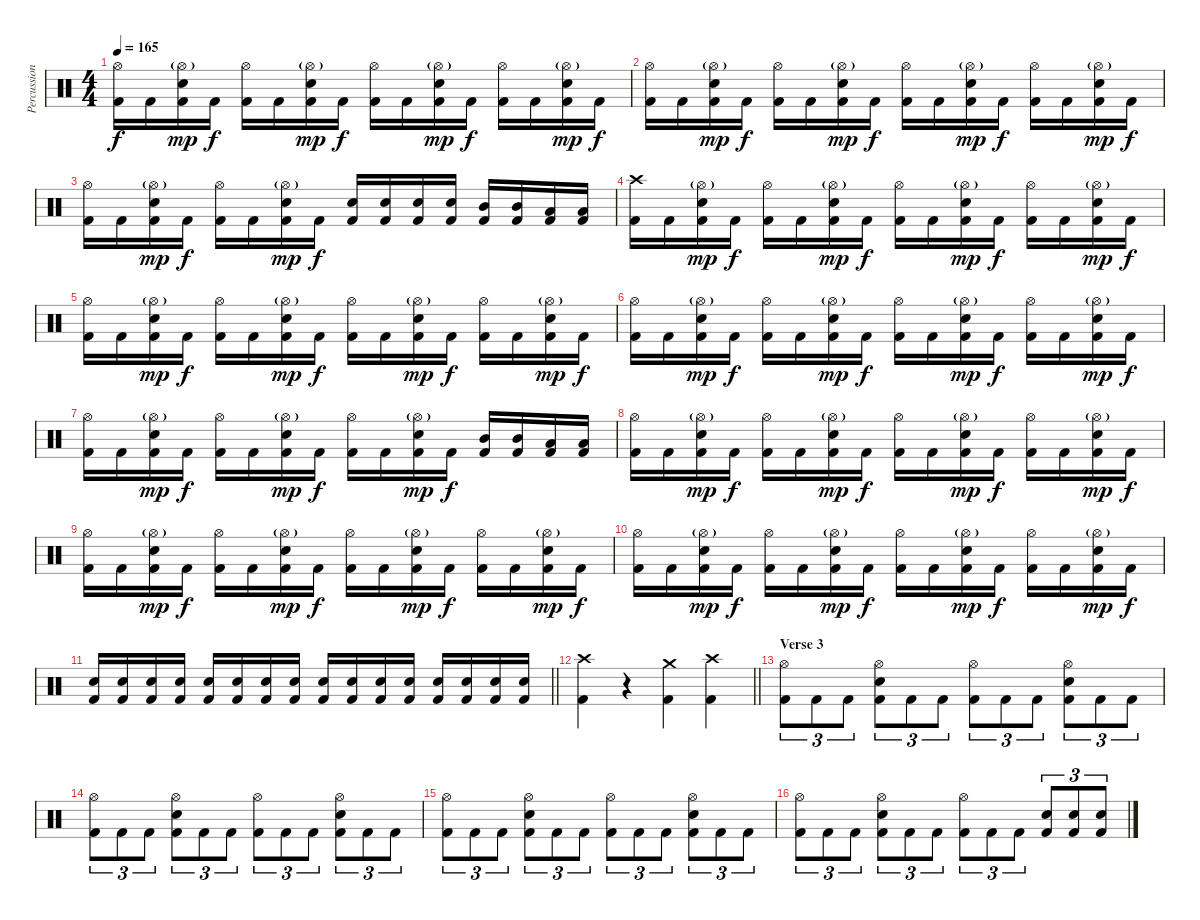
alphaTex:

\track ("Percussion" "Percussion") {instrument percussion}
\staff {score}
\articulation defaults
\ts (4 4)
\tempo 165
\clef neutral
\ks c
("Hi-Hat (open)" "Kick (hit) 2").16{dy f} "Kick (hit) 2".16 ("Hi-Hat (open)"{g} "Snare (hit) 2" "Kick (hit) 2").16{dy mp} "Kick (hit) 2".16{dy f} ("Hi-Hat (open)" "Kick (hit) 2").16 "Kick (hit) 2".16 ("Hi-Hat (open)"{g} "Snare (hit) 2" "Kick (hit) 2").16{dy mp} "Kick (hit) 2".16{dy f} ("Hi-Hat (open)" "Kick (hit) 2").16 "Kick (hit) 2".16 ("Hi-Hat (open)"{g} "Snare (hit) 2" "Kick (hit) 2").16{dy mp} "Kick (hit) 2".16{dy f} ("Hi-Hat (open)" "Kick (hit) 2").16 "Kick (hit) 2".16 ("Hi-Hat (open)"{g} "Snare (hit) 2" "Kick (hit) 2").16{dy mp} "Kick (hit) 2".16{dy f} |
("Hi-Hat (open)" "Kick (hit) 2").16 "Kick (hit) 2".16 ("Hi-Hat (open)"{g} "Snare (hit) 2" "Kick (hit) 2").16{dy mp} "Kick (hit) 2".16{dy f} ("Hi-Hat (open)" "Kick (hit) 2").16 "Kick (hit) 2".16 ("Hi-Hat (open)"{g} "Snare (hit) 2" "Kick (hit) 2").16{dy mp} "Kick (hit) 2".16{dy f} ("Hi-Hat (open)" "Kick (hit) 2").16 "Kick (hit) 2".16 ("Hi-Hat (open)"{g} "Snare (hit) 2" "Kick (hit) 2").16{dy mp} "Kick (hit) 2".16{dy f} ("Hi-Hat (open)" "Kick (hit) 2").16 "Kick (hit) 2".16 ("Hi-Hat (open)"{g} "Snare (hit) 2" "Kick (hit) 2").16{dy mp} "Kick (hit) 2".16{dy f} |
("Hi-Hat (open)" "Kick (hit) 2").16 "Kick (hit) 2".16 ("Hi-Hat (open)"{g} "Snare (hit) 2" "Kick (hit) 2").16{dy mp} "Kick (hit) 2".16{dy f} ("Hi-Hat (open)" "Kick (hit) 2").16 "Kick (hit) 2".16 ("Hi-Hat (open)"{g} "Snare (hit) 2" "Kick (hit) 2").16{dy mp} "Kick (hit) 2".16{dy f} ("Snare (hit) 2" "Kick (hit) 2").16 ("Snare (hit) 2" "Kick (hit) 2").16 ("Snare (hit) 2" "Kick (hit) 2").16 ("Snare (hit) 2" "Kick (hit) 2").16 ("Mid Tom (hit)" "Kick (hit) 2").16 ("Mid Tom (hit)" "Kick (hit) 2").16 ("Low Tom (hit)" "Kick (hit) 2").16 ("Low Tom (hit)" "Kick (hit) 2").16 |
("Crash high (hit)" "Kick (hit) 2").16 "Kick (hit) 2".16 ("Hi-Hat (open)"{g} "Snare (hit) 2" "Kick (hit) 2").16{dy mp} "Kick (hit) 2".16{dy f} ("Hi-Hat (open)" "Kick (hit) 2").16 "Kick (hit) 2".16 ("Hi-Hat (open)"{g} "Snare (hit) 2" "Kick (hit) 2").16{dy mp} "Kick (hit) 2".16{dy f} ("Hi-Hat (open)" "Kick (hit) 2").16 "Kick (hit) 2".16 ("Hi-Hat (open)"{g} "Snare (hit) 2" "Kick (hit) 2").16{dy mp} "Kick (hit) 2".16{dy f} ("Hi-Hat (open)" "Kick (hit) 2").16 "Kick (hit) 2".16 ("Hi-Hat (open)"{g} "Snare (hit) 2" "Kick (hit) 2").16{dy mp} "Kick (hit) 2".16{dy f} |
("Hi-Hat (open)" "Kick (hit) 2").16 "Kick (hit) 2".16 ("Hi-Hat (open)"{g} "Snare (hit) 2" "Kick (hit) 2").16{dy mp} "Kick (hit) 2".16{dy f} ("Hi-Hat (open)" "Kick (hit) 2").16 "Kick (hit) 2".16 ("Hi-Hat (open)"{g} "Snare (hit) 2" "Kick (hit) 2").16{dy mp} "Kick (hit) 2".16{dy f} ("Hi-Hat (open)" "Kick (hit) 2").16 "Kick (hit) 2".16 ("Hi-Hat (open)"{g} "Snare (hit) 2" "Kick (hit) 2").16{dy mp} "Kick (hit) 2".16{dy f} ("Hi-Hat (open)" "Kick (hit) 2").16 "Kick (hit) 2".16 ("Hi-Hat (open)"{g} "Snare (hit) 2" "Kick (hit) 2").16{dy mp} "Kick (hit) 2".16{dy f} |
("Hi-Hat (open)" "Kick (hit) 2").16 "Kick (hit) 2".16 ("Hi-Hat (open)"{g} "Snare (hit) 2" "Kick (hit) 2").16{dy mp} "Kick (hit) 2".16{dy f} ("Hi-Hat (open)" "Kick (hit) 2").16 "Kick (hit) 2".16 ("Hi-Hat (open)"{g} "Snare (hit) 2" "Kick (hit) 2").16{dy mp} "Kick (hit) 2".16{dy f} ("Hi-Hat (open)" "Kick (hit) 2").16 "Kick (hit) 2".16 ("Hi-Hat (open)"{g} "Snare (hit) 2" "Kick (hit) 2").16{dy mp} "Kick (hit) 2".16{dy f} ("Hi-Hat (open)" "Kick (hit) 2").16 "Kick (hit) 2".16 ("Hi-Hat (open)"{g} "Snare (hit) 2" "Kick (hit) 2").16{dy mp} "Kick (hit) 2".16{dy f} |
("Hi-Hat (open)" "Kick (hit) 2").16 "Kick (hit) 2".16 ("Hi-Hat (open)"{g} "Snare (hit) 2" "Kick (hit) 2").16{dy mp} "Kick (hit) 2".16{dy f} ("Hi-Hat (open)" "Kick (hit) 2").16 "Kick (hit) 2".16 ("Hi-Hat (open)"{g} "Snare (hit) 2" "Kick (hit) 2").16{dy mp} "Kick (hit) 2".16{dy f} ("Hi-Hat (open)" "Kick (hit) 2").16 "Kick (hit) 2".16 ("Hi-Hat (open)"{g} "Snare (hit) 2" "Kick (hit) 2").16{dy mp} "Kick (hit) 2".16{dy f} ("Mid Tom (hit)" "Kick (hit) 2").16 ("Mid Tom (hit)" "Kick (hit) 2").16 ("Low Tom (hit)" "Kick (hit) 2").16 ("Low Tom (hit)" "Kick (hit) 2").16 |
("Hi-Hat (open)" "Kick (hit) 2").16 "Kick (hit) 2".16 ("Hi-Hat (open)"{g} "Snare (hit) 2" "Kick (hit) 2").16{dy mp} "Kick (hit) 2".16{dy f} ("Hi-Hat (open)" "Kick (hit) 2").16 "Kick (hit) 2".16 ("Hi-Hat (open)"{g} "Snare (hit) 2" "Kick (hit) 2").16{dy mp} "Kick (hit) 2".16{dy f} ("Hi-Hat (open)" "Kick (hit) 2").16 "Kick (hit) 2".16 ("Hi-Hat (open)"{g} "Snare (hit) 2" "Kick (hit) 2").16{dy mp} "Kick (hit) 2".16{dy f} ("Hi-Hat (open)" "Kick (hit) 2").16 "Kick (hit) 2".16 ("Hi-Hat (open)"{g} "Snare (hit) 2" "Kick (hit) 2").16{dy mp} "Kick (hit) 2".16{dy f} |
("Hi-Hat (open)" "Kick (hit) 2").16 "Kick (hit) 2".16 ("Hi-Hat (open)"{g} "Snare (hit) 2" "Kick (hit) 2").16{dy mp} "Kick (hit) 2".16{dy f} ("Hi-Hat (open)" "Kick (hit) 2").16 "Kick (hit) 2".16 ("Hi-Hat (open)"{g} "Snare (hit) 2" "Kick (hit) 2").16{dy mp} "Kick (hit) 2".16{dy f} ("Hi-Hat (open)" "Kick (hit) 2").16 "Kick (hit) 2".16 ("Hi-Hat (open)"{g} "Snare (hit) 2" "Kick (hit) 2").16{dy mp} "Kick (hit) 2".16{dy f} ("Hi-Hat (open)" "Kick (hit) 2").16 "Kick (hit) 2".16 ("Hi-Hat (open)"{g} "Snare (hit) 2" "Kick (hit) 2").16{dy mp} "Kick (hit) 2".16{dy f} |
("Hi-Hat (open)" "Kick (hit) 2").16 "Kick (hit) 2".16 ("Hi-Hat (open)"{g} "Snare (hit) 2" "Kick (hit) 2").16{dy mp} "Kick (hit) 2".16{dy f} ("Hi-Hat (open)" "Kick (hit) 2").16 "Kick (hit) 2".16 ("Hi-Hat (open)"{g} "Snare (hit) 2" "Kick (hit) 2").16{dy mp} "Kick (hit) 2".16{dy f} ("Hi-Hat (open)" "Kick (hit) 2").16 "Kick (hit) 2".16 ("Hi-Hat (open)"{g} "Snare (hit) 2" "Kick (hit) 2").16{dy mp} "Kick (hit) 2".16{dy f} ("Hi-Hat (open)" "Kick (hit) 2").16 "Kick (hit) 2".16 ("Hi-Hat (open)"{g} "Snare (hit) 2" "Kick (hit) 2").16{dy mp} "Kick (hit) 2".16{dy f} |
\barLineRight lightlight
("Snare (hit) 2" "Kick (hit) 2").16 ("Snare (hit) 2" "Kick (hit) 2").16 ("Snare (hit) 2" "Kick (hit) 2").16 ("Snare (hit) 2" "Kick (hit) 2").16 ("Snare (hit) 2" "Kick (hit) 2").16 ("Snare (hit) 2" "Kick (hit) 2").16 ("Snare (hit) 2" "Kick (hit) 2").16 ("Snare (hit) 2" "Kick (hit) 2").16 ("Snare (hit) 2" "Kick (hit) 2").16 ("Snare (hit) 2" "Kick (hit) 2").16 ("Snare (hit) 2" "Kick (hit) 2").16 ("Snare (hit) 2" "Kick (hit) 2").16 ("Snare (hit) 2" "Kick (hit) 2").16 ("Snare (hit) 2" "Kick (hit) 2").16 ("Snare (hit) 2" "Kick (hit) 2").16 ("Snare (hit) 2" "Kick (hit) 2").16 |
\barLineRight lightlight
("Crash high (hit)" "Kick (hit) 2").4 r.4 ("Crash medium (hit)" "Kick (hit) 2").4 ("Crash high (hit)" "Kick (hit) 2").4 |
\section ("" "Verse 3")
("Hi-Hat (open)" "Kick (hit) 2").8{tu (3 2)} "Kick (hit) 2".8{tu (3 2)} "Kick (hit) 2".8{tu (3 2)} ("Hi-Hat (open)" "Snare (hit) 2" "Kick (hit) 2").8{tu (3 2)} "Kick (hit) 2".8{tu (3 2)} "Kick (hit) 2".8{tu (3 2)} ("Hi-Hat (open)" "Kick (hit) 2").8{tu (3 2)} "Kick (hit) 2".8{tu (3 2)} "Kick (hit) 2".8{tu (3 2)} ("Hi-Hat (open)" "Snare (hit) 2" "Kick (hit) 2").8{tu (3 2)} "Kick (hit) 2".8{tu (3 2)} "Kick (hit) 2".8{tu (3 2)} |
("Hi-Hat (open)" "Kick (hit) 2").8{tu (3 2)} "Kick (hit) 2".8{tu (3 2)} "Kick (hit) 2".8{tu (3 2)} ("Hi-Hat (open)" "Snare (hit) 2" "Kick (hit) 2").8{tu (3 2)} "Kick (hit) 2".8{tu (3 2)} "Kick (hit) 2".8{tu (3 2)} ("Hi-Hat (open)" "Kick (hit) 2").8{tu (3 2)} "Kick (hit) 2".8{tu (3 2)} "Kick (hit) 2".8{tu (3 2)} ("Hi-Hat (open)" "Snare (hit) 2" "Kick (hit) 2").8{tu (3 2)} "Kick (hit) 2".8{tu (3 2)} "Kick (hit) 2".8{tu (3 2)} |
("Hi-Hat (open)" "Kick (hit) 2").8{tu (3 2)} "Kick (hit) 2".8{tu (3 2)} "Kick (hit) 2".8{tu (3 2)} ("Hi-Hat (open)" "Snare (hit) 2" "Kick (hit) 2").8{tu (3 2)} "Kick (hit) 2".8{tu (3 2)} "Kick (hit) 2".8{tu (3 2)} ("Hi-Hat (open)" "Kick (hit) 2").8{tu (3 2)} "Kick (hit) 2".8{tu (3 2)} "Kick (hit) 2".8{tu (3 2)} ("Hi-Hat (open)" "Snare (hit) 2" "Kick (hit) 2").8{tu (3 2)} "Kick (hit) 2".8{tu (3 2)} "Kick (hit) 2".8{tu (3 2)} |
("Hi-Hat (open)" "Kick (hit) 2").8{tu (3 2)} "Kick (hit) 2".8{tu (3 2)} "Kick (hit) 2".8{tu (3 2)} ("Hi-Hat (open)" "Snare (hit) 2" "Kick (hit) 2").8{tu (3 2)} "Kick (hit) 2".8{tu (3 2)} "Kick (hit) 2".8{tu (3 2)} ("Hi-Hat (open)" "Kick (hit) 2").8{tu (3 2)} "Kick (hit) 2".8{tu (3 2)} "Kick (hit) 2".8{tu (3 2)} ("Snare (hit) 2" "Kick (hit) 2").8{tu (3 2)} ("Snare (hit) 2" "Kick (hit) 2").8{tu (3 2)} ("Snare (hit) 2" "Kick (hit) 2").8{tu (3 2)}
